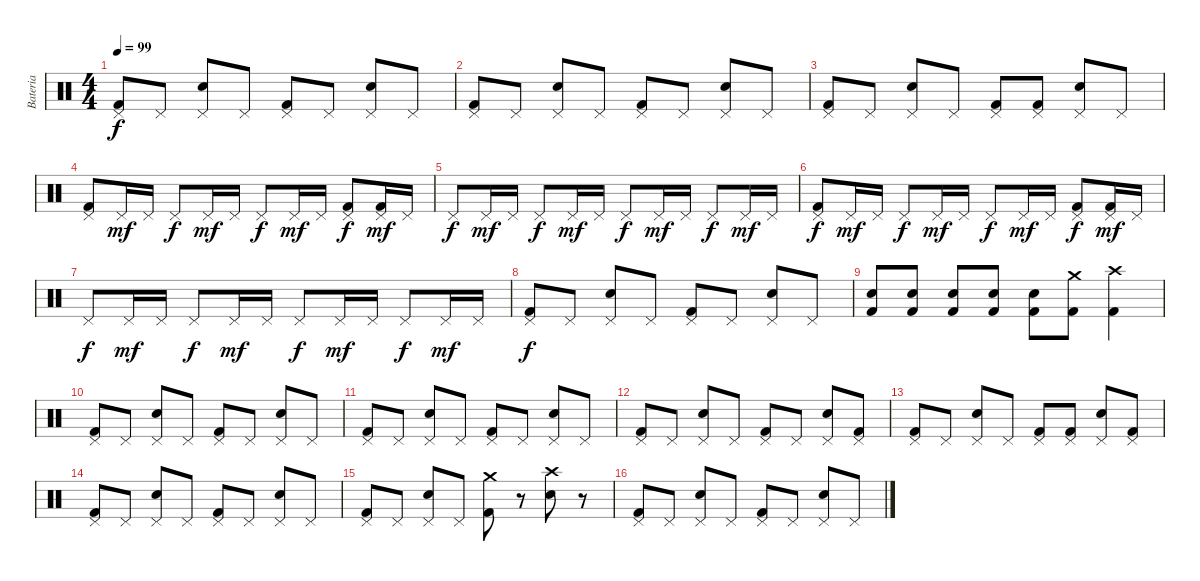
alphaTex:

\track ("Bateria" "Bateria") {instrument percussion}
\staff {score}
\articulation defaults
\ts (4 4)
\tempo 99
\clef neutral
\ks c
("Pedal Hi-Hat (hit)" "Kick (hit) 2").8{dy f} "Pedal Hi-Hat (hit)".8 ("Pedal Hi-Hat (hit)" "Electric Snare (hit)").8 "Pedal Hi-Hat (hit)".8 ("Pedal Hi-Hat (hit)" "Kick (hit) 2").8 "Pedal Hi-Hat (hit)".8 ("Pedal Hi-Hat (hit)" "Electric Snare (hit)").8 "Pedal Hi-Hat (hit)".8 |
("Pedal Hi-Hat (hit)" "Kick (hit) 2").8 "Pedal Hi-Hat (hit)".8 ("Pedal Hi-Hat (hit)" "Electric Snare (hit)").8 "Pedal Hi-Hat (hit)".8 ("Pedal Hi-Hat (hit)" "Kick (hit) 2").8 "Pedal Hi-Hat (hit)".8 ("Pedal Hi-Hat (hit)" "Electric Snare (hit)").8 "Pedal Hi-Hat (hit)".8 |
("Pedal Hi-Hat (hit)" "Kick (hit) 2").8 "Pedal Hi-Hat (hit)".8 ("Pedal Hi-Hat (hit)" "Electric Snare (hit)").8 "Pedal Hi-Hat (hit)".8 ("Pedal Hi-Hat (hit)" "Kick (hit) 2").8 ("Pedal Hi-Hat (hit)" "Kick (hit) 2").8 ("Pedal Hi-Hat (hit)" "Electric Snare (hit)").8 "Pedal Hi-Hat (hit)".8 |
("Pedal Hi-Hat (hit)" "Kick (hit) 2").8 "Pedal Hi-Hat (hit)".16{dy mf} "Pedal Hi-Hat (hit)".16 "Pedal Hi-Hat (hit)".8{dy f} "Pedal Hi-Hat (hit)".16{dy mf} "Pedal Hi-Hat (hit)".16 "Pedal Hi-Hat (hit)".8{dy f} "Pedal Hi-Hat (hit)".16{dy mf} "Pedal Hi-Hat (hit)".16 ("Pedal Hi-Hat (hit)" "Kick (hit) 2").8{dy f} ("Pedal Hi-Hat (hit)" "Kick (hit) 2").16{dy mf} "Pedal Hi-Hat (hit)".16 |
"Pedal Hi-Hat (hit)".8{dy f} "Pedal Hi-Hat (hit)".16{dy mf} "Pedal Hi-Hat (hit)".16 "Pedal Hi-Hat (hit)".8{dy f} "Pedal Hi-Hat (hit)".16{dy mf} "Pedal Hi-Hat (hit)".16 "Pedal Hi-Hat (hit)".8{dy f} "Pedal Hi-Hat (hit)".16{dy mf} "Pedal Hi-Hat (hit)".16 "Pedal Hi-Hat (hit)".8{dy f} "Pedal Hi-Hat (hit)".16{dy mf} "Pedal Hi-Hat (hit)".16 |
("Pedal Hi-Hat (hit)" "Kick (hit) 2").8{dy f} "Pedal Hi-Hat (hit)".16{dy mf} "Pedal Hi-Hat (hit)".16 "Pedal Hi-Hat (hit)".8{dy f} "Pedal Hi-Hat (hit)".16{dy mf} "Pedal Hi-Hat (hit)".16 "Pedal Hi-Hat (hit)".8{dy f} "Pedal Hi-Hat (hit)".16{dy mf} "Pedal Hi-Hat (hit)".16 ("Pedal Hi-Hat (hit)" "Kick (hit) 2").8{dy f} ("Pedal Hi-Hat (hit)" "Kick (hit) 2").16{dy mf} "Pedal Hi-Hat (hit)".16 |
"Pedal Hi-Hat (hit)".8{dy f} "Pedal Hi-Hat (hit)".16{dy mf} "Pedal Hi-Hat (hit)".16 "Pedal Hi-Hat (hit)".8{dy f} "Pedal Hi-Hat (hit)".16{dy mf} "Pedal Hi-Hat (hit)".16 "Pedal Hi-Hat (hit)".8{dy f} "Pedal Hi-Hat (hit)".16{dy mf} "Pedal Hi-Hat (hit)".16 "Pedal Hi-Hat (hit)".8{dy f} "Pedal Hi-Hat (hit)".16{dy mf} "Pedal Hi-Hat (hit)".16 |
("Pedal Hi-Hat (hit)" "Kick (hit) 2").8{dy f} "Pedal Hi-Hat (hit)".8 ("Pedal Hi-Hat (hit)" "Electric Snare (hit)").8 "Pedal Hi-Hat (hit)".8 ("Pedal Hi-Hat (hit)" "Kick (hit) 2").8 "Pedal Hi-Hat (hit)".8 ("Pedal Hi-Hat (hit)" "Electric Snare (hit)").8 "Pedal Hi-Hat (hit)".8 |
("Electric Snare (hit)" "Kick (hit) 2").8 ("Electric Snare (hit)" "Kick (hit) 2").8 ("Electric Snare (hit)" "Kick (hit) 2").8 ("Electric Snare (hit)" "Kick (hit) 2").8 ("Electric Snare (hit)" "Kick (hit) 2").8 ("Crash medium (hit)" "Kick (hit) 2").8 ("Crash high (hit)" "Kick (hit) 2").4 |
("Pedal Hi-Hat (hit)" "Kick (hit) 2").8 "Pedal Hi-Hat (hit)".8 ("Pedal Hi-Hat (hit)" "Electric Snare (hit)").8 "Pedal Hi-Hat (hit)".8 ("Pedal Hi-Hat (hit)" "Kick (hit) 2").8 "Pedal Hi-Hat (hit)".8 ("Pedal Hi-Hat (hit)" "Electric Snare (hit)").8 "Pedal Hi-Hat (hit)".8 |
("Pedal Hi-Hat (hit)" "Kick (hit) 2").8 "Pedal Hi-Hat (hit)".8 ("Pedal Hi-Hat (hit)" "Electric Snare (hit)").8 "Pedal Hi-Hat (hit)".8 ("Pedal Hi-Hat (hit)" "Kick (hit) 2").8 "Pedal Hi-Hat (hit)".8 ("Pedal Hi-Hat (hit)" "Electric Snare (hit)").8 "Pedal Hi-Hat (hit)".8 |
("Pedal Hi-Hat (hit)" "Kick (hit) 2").8 "Pedal Hi-Hat (hit)".8 ("Pedal Hi-Hat (hit)" "Electric Snare (hit)").8 "Pedal Hi-Hat (hit)".8 ("Pedal Hi-Hat (hit)" "Kick (hit) 2").8 "Pedal Hi-Hat (hit)".8 ("Pedal Hi-Hat (hit)" "Electric Snare (hit)").8 ("Pedal Hi-Hat (hit)" "Kick (hit) 2").8 |
("Pedal Hi-Hat (hit)" "Kick (hit) 2").8 "Pedal Hi-Hat (hit)".8 ("Pedal Hi-Hat (hit)" "Electric Snare (hit)").8 "Pedal Hi-Hat (hit)".8 ("Pedal Hi-Hat (hit)" "Kick (hit) 2").8 ("Pedal Hi-Hat (hit)" "Kick (hit) 2").8 ("Pedal Hi-Hat (hit)" "Electric Snare (hit)").8 ("Pedal Hi-Hat (hit)" "Kick (hit) 2").8 |
("Pedal Hi-Hat (hit)" "Kick (hit) 2").8 "Pedal Hi-Hat (hit)".8 ("Pedal Hi-Hat (hit)" "Electric Snare (hit)").8 "Pedal Hi-Hat (hit)".8 ("Pedal Hi-Hat (hit)" "Kick (hit) 2").8 "Pedal Hi-Hat (hit)".8 ("Pedal Hi-Hat (hit)" "Electric Snare (hit)").8 "Pedal Hi-Hat (hit)".8 |
("Pedal Hi-Hat (hit)" "Kick (hit) 2").8 "Pedal Hi-Hat (hit)".8 ("Pedal Hi-Hat (hit)" "Electric Snare (hit)").8 "Pedal Hi-Hat (hit)".8 ("Crash medium (hit)" "Kick (hit) 2").8 r.8 ("Crash high (hit)" "Electric Snare (hit)").8 r.8 |
("Pedal Hi-Hat (hit)" "Kick (hit) 2").8 "Pedal Hi-Hat (hit)".8 ("Pedal Hi-Hat (hit)" "Electric Snare (hit)").8 "Pedal Hi-Hat (hit)".8 ("Pedal Hi-Hat (hit)" "Kick (hit) 2").8 "Pedal Hi-Hat (hit)".8 ("Pedal Hi-Hat (hit)" "Electric Snare (hit)").8 "Pedal Hi-Hat (hit)".8
